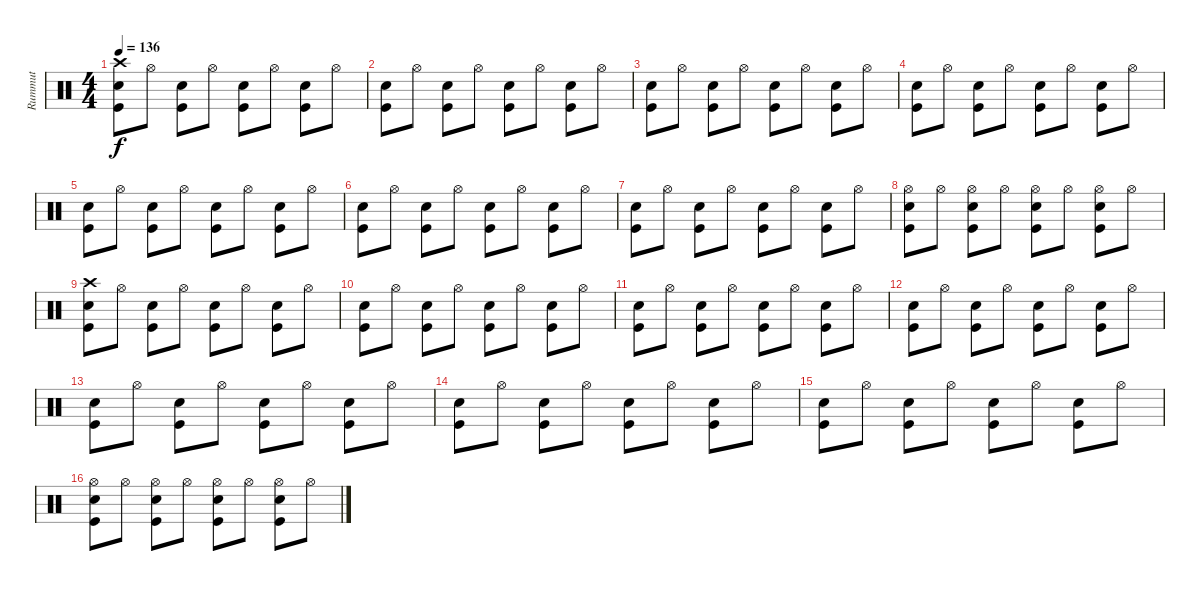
\track ("Rummut" "Rummut") {instrument percussion}
\staff {score}
\articulation defaults
\ts (4 4)
\tempo 136
\clef neutral
\ks c
("Crash high (hit)" "Electric Snare (hit)" "Kick (hit)").8{dy f} "Hi-Hat (open)".8 ("Electric Snare (hit)" "Kick (hit)").8 "Hi-Hat (open)".8 ("Electric Snare (hit)" "Kick (hit)").8 "Hi-Hat (open)".8 ("Electric Snare (hit)" "Kick (hit)").8 "Hi-Hat (open)".8 |
("Electric Snare (hit)" "Kick (hit)").8 "Hi-Hat (open)".8 ("Electric Snare (hit)" "Kick (hit)").8 "Hi-Hat (open)".8 ("Electric Snare (hit)" "Kick (hit)").8 "Hi-Hat (open)".8 ("Electric Snare (hit)" "Kick (hit)").8 "Hi-Hat (open)".8 |
("Electric Snare (hit)" "Kick (hit)").8 "Hi-Hat (open)".8 ("Electric Snare (hit)" "Kick (hit)").8 "Hi-Hat (open)".8 ("Electric Snare (hit)" "Kick (hit)").8 "Hi-Hat (open)".8 ("Electric Snare (hit)" "Kick (hit)").8 "Hi-Hat (open)".8 |
("Electric Snare (hit)" "Kick (hit)").8 "Hi-Hat (open)".8 ("Electric Snare (hit)" "Kick (hit)").8 "Hi-Hat (open)".8 ("Electric Snare (hit)" "Kick (hit)").8 "Hi-Hat (open)".8 ("Electric Snare (hit)" "Kick (hit)").8 "Hi-Hat (open)".8 |
("Electric Snare (hit)" "Kick (hit)").8 "Hi-Hat (open)".8 ("Electric Snare (hit)" "Kick (hit)").8 "Hi-Hat (open)".8 ("Electric Snare (hit)" "Kick (hit)").8 "Hi-Hat (open)".8 ("Electric Snare (hit)" "Kick (hit)").8 "Hi-Hat (open)".8 |
("Electric Snare (hit)" "Kick (hit)").8 "Hi-Hat (open)".8 ("Electric Snare (hit)" "Kick (hit)").8 "Hi-Hat (open)".8 ("Electric Snare (hit)" "Kick (hit)").8 "Hi-Hat (open)".8 ("Electric Snare (hit)" "Kick (hit)").8 "Hi-Hat (open)".8 |
("Electric Snare (hit)" "Kick (hit)").8 "Hi-Hat (open)".8 ("Electric Snare (hit)" "Kick (hit)").8 "Hi-Hat (open)".8 ("Electric Snare (hit)" "Kick (hit)").8 "Hi-Hat (open)".8 ("Electric Snare (hit)" "Kick (hit)").8 "Hi-Hat (open)".8 |
("Hi-Hat (open)" "Electric Snare (hit)" "Kick (hit)").8 "Hi-Hat (open)".8 ("Hi-Hat (open)" "Electric Snare (hit)" "Kick (hit)").8 "Hi-Hat (open)".8 ("Hi-Hat (open)" "Electric Snare (hit)" "Kick (hit)").8 "Hi-Hat (open)".8 ("Hi-Hat (open)" "Electric Snare (hit)" "Kick (hit)").8 "Hi-Hat (open)".8 |
("Crash high (hit)" "Electric Snare (hit)" "Kick (hit)").8 "Hi-Hat (open)".8 ("Electric Snare (hit)" "Kick (hit)").8 "Hi-Hat (open)".8 ("Electric Snare (hit)" "Kick (hit)").8 "Hi-Hat (open)".8 ("Electric Snare (hit)" "Kick (hit)").8 "Hi-Hat (open)".8 |
("Electric Snare (hit)" "Kick (hit)").8 "Hi-Hat (open)".8 ("Electric Snare (hit)" "Kick (hit)").8 "Hi-Hat (open)".8 ("Electric Snare (hit)" "Kick (hit)").8 "Hi-Hat (open)".8 ("Electric Snare (hit)" "Kick (hit)").8 "Hi-Hat (open)".8 |
("Electric Snare (hit)" "Kick (hit)").8 "Hi-Hat (open)".8 ("Electric Snare (hit)" "Kick (hit)").8 "Hi-Hat (open)".8 ("Electric Snare (hit)" "Kick (hit)").8 "Hi-Hat (open)".8 ("Electric Snare (hit)" "Kick (hit)").8 "Hi-Hat (open)".8 |
("Electric Snare (hit)" "Kick (hit)").8 "Hi-Hat (open)".8 ("Electric Snare (hit)" "Kick (hit)").8 "Hi-Hat (open)".8 ("Electric Snare (hit)" "Kick (hit)").8 "Hi-Hat (open)".8 ("Electric Snare (hit)" "Kick (hit)").8 "Hi-Hat (open)".8 |
("Electric Snare (hit)" "Kick (hit)").8 "Hi-Hat (open)".8 ("Electric Snare (hit)" "Kick (hit)").8 "Hi-Hat (open)".8 ("Electric Snare (hit)" "Kick (hit)").8 "Hi-Hat (open)".8 ("Electric Snare (hit)" "Kick (hit)").8 "Hi-Hat (open)".8 |
("Electric Snare (hit)" "Kick (hit)").8 "Hi-Hat (open)".8 ("Electric Snare (hit)" "Kick (hit)").8 "Hi-Hat (open)".8 ("Electric Snare (hit)" "Kick (hit)").8 "Hi-Hat (open)".8 ("Electric Snare (hit)" "Kick (hit)").8 "Hi-Hat (open)".8 |
("Electric Snare (hit)" "Kick (hit)").8 "Hi-Hat (open)".8 ("Electric Snare (hit)" "Kick (hit)").8 "Hi-Hat (open)".8 ("Electric Snare (hit)" "Kick (hit)").8 "Hi-Hat (open)".8 ("Electric Snare (hit)" "Kick (hit)").8 "Hi-Hat (open)".8 |
("Hi-Hat (open)" "Electric Snare (hit)" "Kick (hit)").8 "Hi-Hat (open)".8 ("Hi-Hat (open)" "Electric Snare (hit)" "Kick (hit)").8 "Hi-Hat (open)".8 ("Hi-Hat (open)" "Electric Snare (hit)" "Kick (hit)").8 "Hi-Hat (open)".8 ("Hi-Hat (open)" "Electric Snare (hit)" "Kick (hit)").8 "Hi-Hat (open)".8
